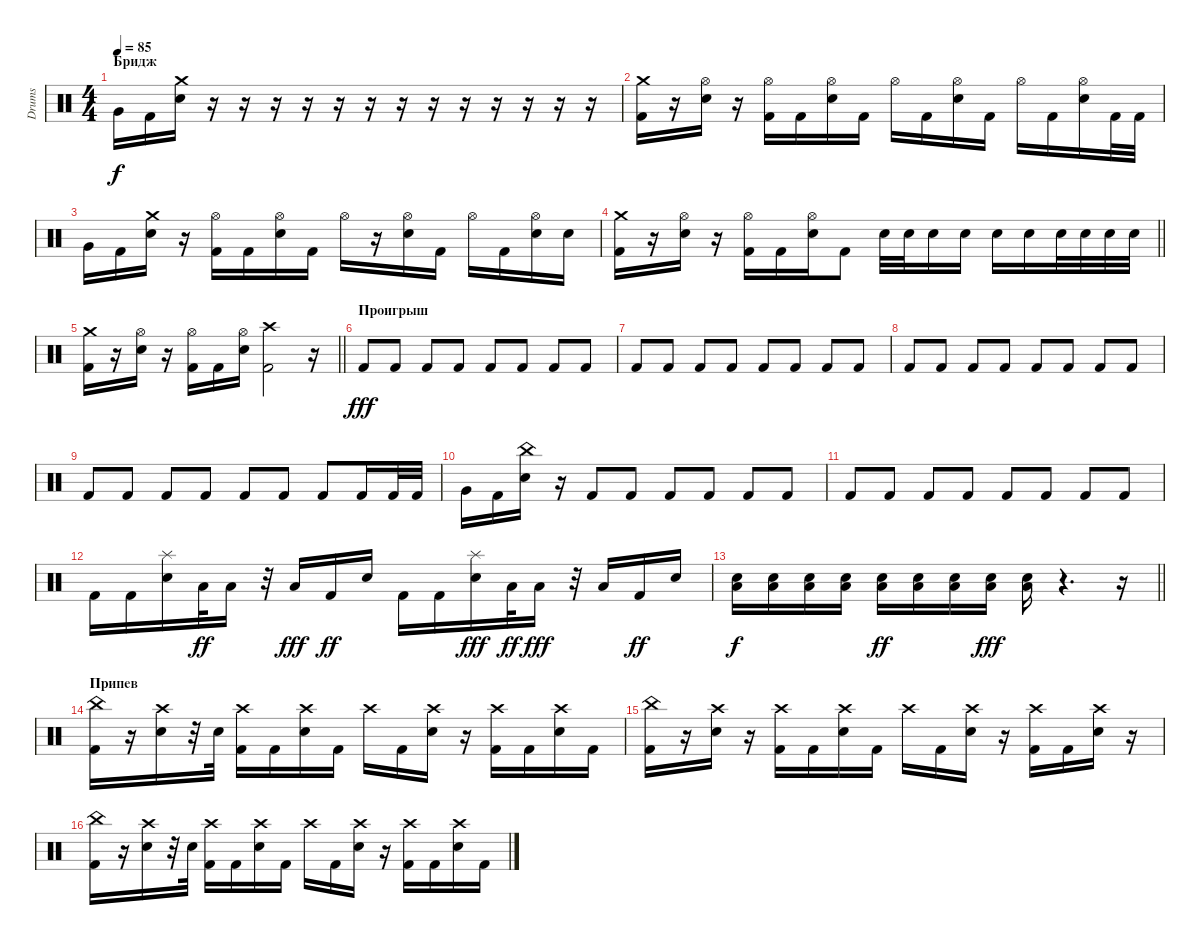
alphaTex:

\track ("Drums" "Drums") {instrument percussion}
\staff {score}
\articulation defaults
\ts (4 4)
\section ("" "Бридж")
\tempo 85
\clef neutral
\ks c "Very Low Tom (hit)".16{dy f} "Kick (hit) 2".16
("Crash medium (hit)" "Electric Snare (hit)").16 r.16 r.16 r.16 r.16 r.16 r.16 r.16 r.16 r.16 r.16 r.16 r.16 r.16 |
("Crash medium (hit)" "Kick (hit) 2").16 r.16 ("Hi-Hat (open)" "Electric Snare (hit)").16 r.16 ("Hi-Hat (open)" "Kick (hit) 2").16 "Kick (hit) 2".16 ("Hi-Hat (open)" "Electric Snare (hit)").16 "Kick (hit) 2".16 "Hi-Hat (open)".16 "Kick (hit) 2".16 ("Hi-Hat (open)" "Electric Snare (hit)").16 "Kick (hit) 2".16 "Hi-Hat (open)".16 "Kick (hit) 2".16 ("Hi-Hat (open)" "Electric Snare (hit)").16 "Kick (hit) 2".32 "Kick (hit) 2".32 |
"Very Low Tom (hit)".16 "Kick (hit) 2".16 ("Crash medium (hit)" "Electric Snare (hit)").16 r.16 ("Hi-Hat (open)" "Kick (hit) 2").16 "Kick (hit) 2".16 ("Hi-Hat (open)" "Electric Snare (hit)").16 "Kick (hit) 2".16 "Hi-Hat (open)".16 r.16 ("Hi-Hat (open)" "Electric Snare (hit)").16 "Kick (hit) 2".16 "Hi-Hat (open)".16 "Kick (hit) 2".16 ("Hi-Hat (open)" "Electric Snare (hit)").16 "Electric Snare (hit)".16 |
\barLineRight lightlight
("Crash medium (hit)" "Kick (hit) 2").16 r.16 ("Hi-Hat (open)" "Electric Snare (hit)").16 r.16 ("Hi-Hat (open)" "Kick (hit) 2").16 "Kick (hit) 2".16 ("Hi-Hat (open)" "Electric Snare (hit)").16 "Kick (hit) 2".8 "Electric Snare (hit)".32 "Electric Snare (hit)".32 "Electric Snare (hit)".16 "Electric Snare (hit)".16 "Electric Snare (hit)".16 "Electric Snare (hit)".16 "Electric Snare (hit)".32 "Electric Snare (hit)".32 "Electric Snare (hit)".32 "Electric Snare (hit)".32 |
\barLineRight lightlight
("Crash medium (hit)" "Kick (hit) 2").16 r.16 ("Hi-Hat (open)" "Electric Snare (hit)").16 r.16 ("Hi-Hat (open)" "Kick (hit) 2").16 "Kick (hit) 2".16 ("Hi-Hat (open)" "Electric Snare (hit)").16 ("Crash high (hit)" "Kick (hit) 2").2 r.16 |
\section ("" "Проигрыш")
"Kick (hit) 2".8{dy fff} "Kick (hit) 2".8 "Kick (hit) 2".8 "Kick (hit) 2".8 "Kick (hit) 2".8 "Kick (hit) 2".8 "Kick (hit) 2".8 "Kick (hit) 2".8 |
"Kick (hit) 2".8 "Kick (hit) 2".8 "Kick (hit) 2".8 "Kick (hit) 2".8 "Kick (hit) 2".8 "Kick (hit) 2".8 "Kick (hit) 2".8 "Kick (hit) 2".8 |
"Kick (hit) 2".8 "Kick (hit) 2".8 "Kick (hit) 2".8 "Kick (hit) 2".8 "Kick (hit) 2".8 "Kick (hit) 2".8 "Kick (hit) 2".8 "Kick (hit) 2".8 |
"Kick (hit) 2".8 "Kick (hit) 2".8 "Kick (hit) 2".8 "Kick (hit) 2".8 "Kick (hit) 2".8 "Kick (hit) 2".8 "Kick (hit) 2".8 "Kick (hit) 2".16 "Kick (hit) 2".32 "Kick (hit) 2".32 |
"Very Low Tom (hit)".16 "Kick (hit) 2".16 ("Electric Snare (hit)" "China (hit)").16 r.16 "Kick (hit) 2".8 "Kick (hit) 2".8 "Kick (hit) 2".8 "Kick (hit) 2".8 "Kick (hit) 2".8 "Kick (hit) 2".8 |
"Kick (hit) 2".8 "Kick (hit) 2".8 "Kick (hit) 2".8 "Kick (hit) 2".8 "Kick (hit) 2".8 "Kick (hit) 2".8 "Kick (hit) 2".8 "Kick (hit) 2".8 |
"Kick (hit) 2".16 "Kick (hit) 2".16 ("Electric Snare (hit)" "Splash (hit)").16 "Low Tom (hit)".32{dy ff} "Low Floor Tom (hit)".16 r.32 "Low Tom (hit)".16{dy fff} "Kick (hit) 2".16{dy ff} "Electric Snare (hit)".16 "Kick (hit) 2".16 "Kick (hit) 2".16 ("Electric Snare (hit)" "Splash (hit)").16{dy fff} "Low Tom (hit)".32{dy ff} "Low Floor Tom (hit)".16{dy fff} r.32 "Low Tom (hit)".16 "Kick (hit) 2".16{dy ff} "Snare (hit) 2".16 |
\barLineRight lightlight
("Electric Snare (hit)" "Low Floor Tom (hit)").16{dy f} ("Electric Snare (hit)" "Low Floor Tom (hit)").16 ("Electric Snare (hit)" "Low Floor Tom (hit)").16 ("Electric Snare (hit)" "Low Floor Tom (hit)").16 ("Electric Snare (hit)" "Low Floor Tom (hit)").16{dy ff} ("Electric Snare (hit)" "Low Floor Tom (hit)").16 ("Electric Snare (hit)" "Low Floor Tom (hit)").16 ("Electric Snare (hit)" "Low Floor Tom (hit)").16{dy fff} ("Electric Snare (hit)" "Low Floor Tom (hit)").16 r.4{d} r.16 |
\section ("" "Припев")
("Kick (hit) 2" "China (hit)").16 r.16 ("Electric Snare (hit)" "Crash high (hit)").16 r.32 "Electric Snare (hit)".32 ("Kick (hit) 2" "Crash high (hit)").16 "Kick (hit) 2".16 ("Electric Snare (hit)" "Crash high (hit)").16 "Kick (hit) 2".16 "Crash high (hit)".16 "Kick (hit) 2".16 ("Electric Snare (hit)" "Crash high (hit)").16 r.16 ("Kick (hit) 2" "Crash high (hit)").16 "Kick (hit) 2".16 ("Electric Snare (hit)" "Crash high (hit)").16 "Kick (hit) 2".16 |
("Kick (hit) 2" "China (hit)").16 r.16 ("Electric Snare (hit)" "Crash high (hit)").16 r.16 ("Kick (hit) 2" "Crash high (hit)").16 "Kick (hit) 2".16 ("Electric Snare (hit)" "Crash high (hit)").16 "Kick (hit) 2".16 "Crash high (hit)".16 "Kick (hit) 2".16 ("Electric Snare (hit)" "Crash high (hit)").16 r.16 ("Kick (hit) 2" "Crash high (hit)").16 "Kick (hit) 2".16 ("Electric Snare (hit)" "Crash high (hit)").16 r.16 |
("Kick (hit) 2" "China (hit)").16 r.16 ("Electric Snare (hit)" "Crash high (hit)").16 r.32 "Electric Snare (hit)".32 ("Kick (hit) 2" "Crash high (hit)").16 "Kick (hit) 2".16 ("Electric Snare (hit)" "Crash high (hit)").16 "Kick (hit) 2".16 "Crash high (hit)".16 "Kick (hit) 2".16 ("Electric Snare (hit)" "Crash high (hit)").16 r.16 ("Kick (hit) 2" "Crash high (hit)").16 "Kick (hit) 2".16 ("Electric Snare (hit)" "Crash high (hit)").16 "Kick (hit) 2".16
